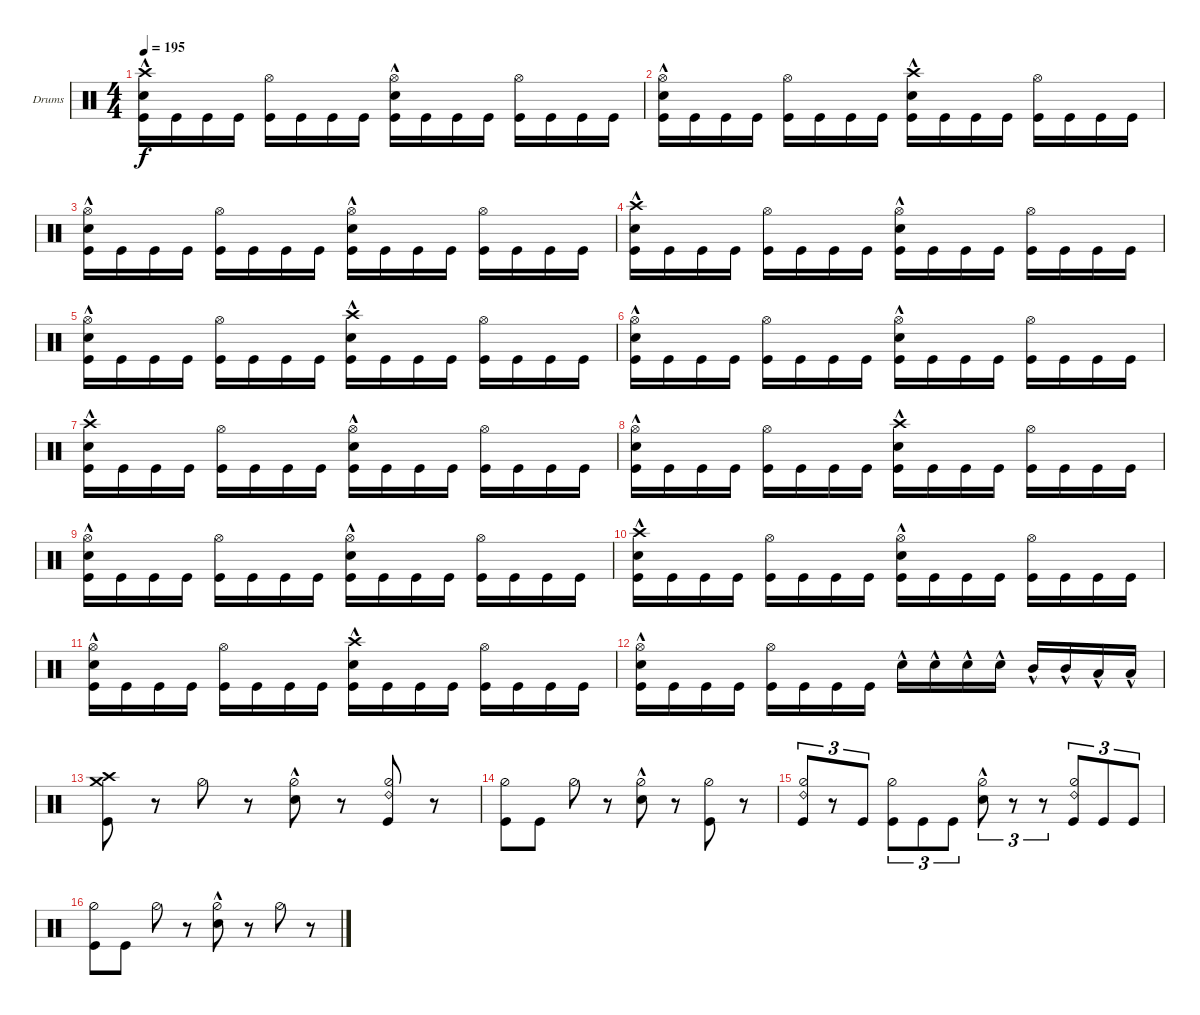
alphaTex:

\defaultSystemsLayout 4
\bracketExtendMode groupsimilarinstruments
\firstSystemTrackNameOrientation horizontal
\otherSystemsTrackNameOrientation horizontal
\track ("Drumkit" "Drums") {instrument percussion}
\staff {score}
\articulation defaults
\ts (4 4)
\tempo 195
\clef neutral
\ks c
("Kick (hit)" "Snare (hit) 2"{hac} "Crash high (hit)").16{dy f} "Kick (hit)".16 "Kick (hit)".16 "Kick (hit)".16 ("Kick (hit)" "Hi-Hat (open)").16 "Kick (hit)".16 "Kick (hit)".16 "Kick (hit)".16 ("Kick (hit)" "Hi-Hat (open)" "Snare (hit) 2"{hac}).16 "Kick (hit)".16 "Kick (hit)".16 "Kick (hit)".16 ("Kick (hit)" "Hi-Hat (open)").16 "Kick (hit)".16 "Kick (hit)".16 "Kick (hit)".16 |
("Kick (hit)" "Snare (hit) 2"{hac} "Hi-Hat (open)").16 "Kick (hit)".16 "Kick (hit)".16 "Kick (hit)".16 ("Kick (hit)" "Hi-Hat (open)").16 "Kick (hit)".16 "Kick (hit)".16 "Kick (hit)".16 ("Kick (hit)" "Snare (hit) 2"{hac} "Crash high (hit)").16 "Kick (hit)".16 "Kick (hit)".16 "Kick (hit)".16 ("Kick (hit)" "Hi-Hat (open)").16 "Kick (hit)".16 "Kick (hit)".16 "Kick (hit)".16 |
("Kick (hit)" "Snare (hit) 2"{hac} "Hi-Hat (open)").16 "Kick (hit)".16 "Kick (hit)".16 "Kick (hit)".16 ("Kick (hit)" "Hi-Hat (open)").16 "Kick (hit)".16 "Kick (hit)".16 "Kick (hit)".16 ("Kick (hit)" "Snare (hit) 2"{hac} "Hi-Hat (open)").16 "Kick (hit)".16 "Kick (hit)".16 "Kick (hit)".16 ("Kick (hit)" "Hi-Hat (open)").16 "Kick (hit)".16 "Kick (hit)".16 "Kick (hit)".16 |
("Kick (hit)" "Snare (hit) 2"{hac} "Crash high (hit)").16 "Kick (hit)".16 "Kick (hit)".16 "Kick (hit)".16 ("Kick (hit)" "Hi-Hat (open)").16 "Kick (hit)".16 "Kick (hit)".16 "Kick (hit)".16 ("Kick (hit)" "Hi-Hat (open)" "Snare (hit) 2"{hac}).16 "Kick (hit)".16 "Kick (hit)".16 "Kick (hit)".16 ("Kick (hit)" "Hi-Hat (open)").16 "Kick (hit)".16 "Kick (hit)".16 "Kick (hit)".16 |
("Kick (hit)" "Snare (hit) 2"{hac} "Hi-Hat (open)").16 "Kick (hit)".16 "Kick (hit)".16 "Kick (hit)".16 ("Kick (hit)" "Hi-Hat (open)").16 "Kick (hit)".16 "Kick (hit)".16 "Kick (hit)".16 ("Kick (hit)" "Snare (hit) 2"{hac} "Crash high (hit)").16 "Kick (hit)".16 "Kick (hit)".16 "Kick (hit)".16 ("Kick (hit)" "Hi-Hat (open)").16 "Kick (hit)".16 "Kick (hit)".16 "Kick (hit)".16 |
("Kick (hit)" "Snare (hit) 2"{hac} "Hi-Hat (open)").16 "Kick (hit)".16 "Kick (hit)".16 "Kick (hit)".16 ("Kick (hit)" "Hi-Hat (open)").16 "Kick (hit)".16 "Kick (hit)".16 "Kick (hit)".16 ("Kick (hit)" "Snare (hit) 2"{hac} "Hi-Hat (open)").16 "Kick (hit)".16 "Kick (hit)".16 "Kick (hit)".16 ("Kick (hit)" "Hi-Hat (open)").16 "Kick (hit)".16 "Kick (hit)".16 "Kick (hit)".16 |
("Kick (hit)" "Snare (hit) 2"{hac} "Crash high (hit)").16 "Kick (hit)".16 "Kick (hit)".16 "Kick (hit)".16 ("Kick (hit)" "Hi-Hat (open)").16 "Kick (hit)".16 "Kick (hit)".16 "Kick (hit)".16 ("Kick (hit)" "Hi-Hat (open)" "Snare (hit) 2"{hac}).16 "Kick (hit)".16 "Kick (hit)".16 "Kick (hit)".16 ("Kick (hit)" "Hi-Hat (open)").16 "Kick (hit)".16 "Kick (hit)".16 "Kick (hit)".16 |
("Kick (hit)" "Snare (hit) 2"{hac} "Hi-Hat (open)").16 "Kick (hit)".16 "Kick (hit)".16 "Kick (hit)".16 ("Kick (hit)" "Hi-Hat (open)").16 "Kick (hit)".16 "Kick (hit)".16 "Kick (hit)".16 ("Kick (hit)" "Snare (hit) 2"{hac} "Crash high (hit)").16 "Kick (hit)".16 "Kick (hit)".16 "Kick (hit)".16 ("Kick (hit)" "Hi-Hat (open)").16 "Kick (hit)".16 "Kick (hit)".16 "Kick (hit)".16 |
("Kick (hit)" "Snare (hit) 2"{hac} "Hi-Hat (open)").16 "Kick (hit)".16 "Kick (hit)".16 "Kick (hit)".16 ("Kick (hit)" "Hi-Hat (open)").16 "Kick (hit)".16 "Kick (hit)".16 "Kick (hit)".16 ("Kick (hit)" "Snare (hit) 2"{hac} "Hi-Hat (open)").16 "Kick (hit)".16 "Kick (hit)".16 "Kick (hit)".16 ("Kick (hit)" "Hi-Hat (open)").16 "Kick (hit)".16 "Kick (hit)".16 "Kick (hit)".16 |
("Kick (hit)" "Snare (hit) 2"{hac} "Crash high (hit)").16 "Kick (hit)".16 "Kick (hit)".16 "Kick (hit)".16 ("Kick (hit)" "Hi-Hat (open)").16 "Kick (hit)".16 "Kick (hit)".16 "Kick (hit)".16 ("Kick (hit)" "Hi-Hat (open)" "Snare (hit) 2"{hac}).16 "Kick (hit)".16 "Kick (hit)".16 "Kick (hit)".16 ("Kick (hit)" "Hi-Hat (open)").16 "Kick (hit)".16 "Kick (hit)".16 "Kick (hit)".16 |
("Kick (hit)" "Snare (hit) 2"{hac} "Hi-Hat (open)").16 "Kick (hit)".16 "Kick (hit)".16 "Kick (hit)".16 ("Kick (hit)" "Hi-Hat (open)").16 "Kick (hit)".16 "Kick (hit)".16 "Kick (hit)".16 ("Kick (hit)" "Snare (hit) 2"{hac} "Crash high (hit)").16 "Kick (hit)".16 "Kick (hit)".16 "Kick (hit)".16 ("Kick (hit)" "Hi-Hat (open)").16 "Kick (hit)".16 "Kick (hit)".16 "Kick (hit)".16 |
("Kick (hit)" "Snare (hit) 2"{hac} "Hi-Hat (open)").16 "Kick (hit)".16 "Kick (hit)".16 "Kick (hit)".16 ("Kick (hit)" "Hi-Hat (open)").16 "Kick (hit)".16 "Kick (hit)".16 "Kick (hit)".16 "Snare (hit) 2"{hac}.16 "Snare (hit) 2"{hac}.16 "Snare (hit) 2"{hac}.16 "Snare (hit) 2"{hac}.16 "Mid Tom (hit)"{hac}.16 "Mid Tom (hit)"{hac}.16 "Low Tom (hit)"{hac}.16 "Low Tom (hit)"{hac}.16 |
("Kick (hit)" "Crash medium (hit)" "Crash high (hit)").8 r.8 "Hi-Hat (half)".8 r.8 ("Hi-Hat (half)" "Snare (hit) 2"{hac}).8 r.8 ("Hi-Hat (half)" "Kick (hit)" "Ride (bell) 2").8 r.8 |
("Kick (hit)" "Hi-Hat (half)").8 "Kick (hit)".8 "Hi-Hat (half)".8 r.8 ("Hi-Hat (half)" "Snare (hit) 2"{hac}).8 r.8 ("Hi-Hat (half)" "Kick (hit)").8 r.8 |
("Kick (hit)" "Hi-Hat (half)" "Ride (bell) 2").8{tu (3 2)} r.8{tu (3 2)} "Kick (hit)".8{tu (3 2)} ("Kick (hit)" "Hi-Hat (half)").8{tu (3 2)} "Kick (hit)".8{tu (3 2)} "Kick (hit)".8{tu (3 2)} ("Hi-Hat (half)" "Snare (hit) 2"{hac}).8{tu (3 2)} r.8{tu (3 2)} r.8{tu (3 2)} ("Kick (hit)" "Hi-Hat (half)" "Ride (bell) 2").8{tu (3 2)} "Kick (hit)".8{tu (3 2)} "Kick (hit)".8{tu (3 2)} |
("Kick (hit)" "Hi-Hat (half)").8 "Kick (hit)".8 "Hi-Hat (half)".8 r.8 ("Hi-Hat (half)" "Snare (hit) 2"{hac}).8 r.8 "Hi-Hat (half)".8 r.8
